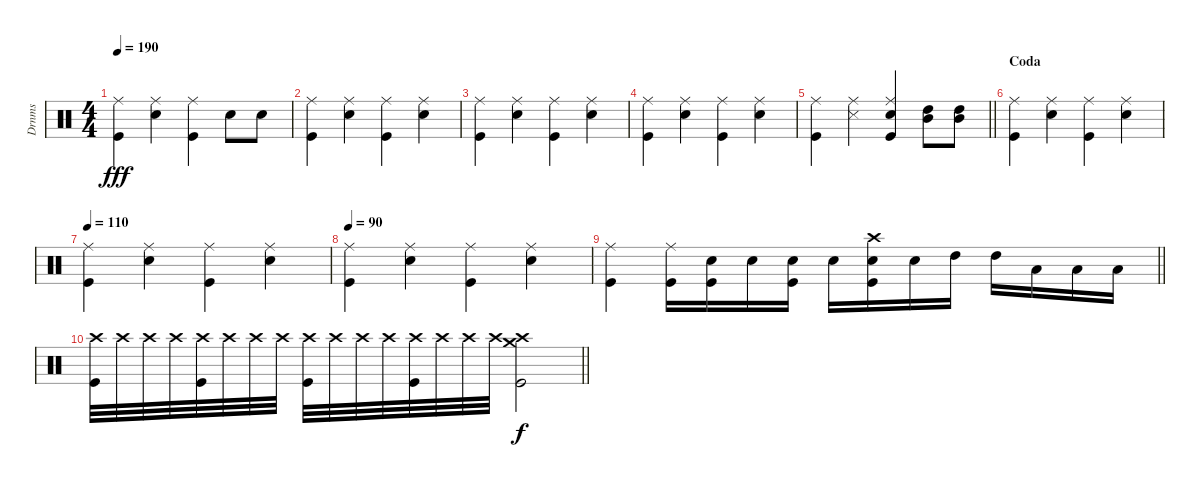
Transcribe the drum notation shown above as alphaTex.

\track ("Drnms" "Drnms") {instrument percussion}
\staff {score}
\articulation defaults
\ts (4 4)
\tempo 190
\clef neutral
\ks c
("Kick (hit)" "Ride (middle)").4{dy fff} ("Snare (hit) 2" "Ride (middle)").4 ("Kick (hit)" "Ride (middle)").4 "Snare (hit) 2".8 "Snare (hit) 2".8 |
("Kick (hit)" "Ride (middle)").4 ("Snare (hit) 2" "Ride (middle)").4 ("Kick (hit)" "Ride (middle)").4 ("Snare (hit) 2" "Ride (middle)").4 |
("Kick (hit)" "Ride (middle)").4 ("Snare (hit) 2" "Ride (middle)").4 ("Kick (hit)" "Ride (middle)").4 ("Snare (hit) 2" "Ride (middle)").4 |
("Kick (hit)" "Ride (middle)").4 ("Snare (hit) 2" "Ride (middle)").4 ("Kick (hit)" "Ride (middle)").4 ("Snare (hit) 2" "Ride (middle)").4 |
\barLineRight lightlight
("Kick (hit)" "Ride (middle)").4 ("Snare (side stick) 3" "Ride (middle)").4 ("Kick (hit)" "Snare (hit) 2" "Ride (middle)").4 ("Mid Tom (hit)" "High Tom (hit)").8 ("Mid Tom (hit)" "High Tom (hit)").8 |
\section ("" "Coda")
("Kick (hit)" "Ride (middle)").4 ("Snare (hit) 2" "Ride (middle)").4 ("Kick (hit)" "Ride (middle)").4 ("Snare (hit) 2" "Ride (middle)").4 |
\tempo 110
("Kick (hit)" "Ride (middle)").4 ("Snare (hit) 2" "Ride (middle)").4 ("Kick (hit)" "Ride (middle)").4 ("Snare (hit) 2" "Ride (middle)").4 |
\tempo 90
("Kick (hit)" "Ride (middle)").4 ("Snare (hit) 2" "Ride (middle)").4 ("Kick (hit)" "Ride (middle)").4 ("Snare (hit) 2" "Ride (middle)").4 |
\barLineRight lightlight
("Kick (hit)" "Ride (middle)").4 ("Kick (hit)" "Ride (middle)").16 ("Kick (hit)" "Snare (hit) 2").16 "Snare (hit) 2".16 ("Kick (hit)" "Snare (hit) 2").16 "Snare (hit) 2".16 ("Kick (hit)" "Snare (hit) 2" "Crash high (hit)").16 "Snare (hit) 2".16 "High Tom (hit)".16 "High Tom (hit)".16 "Low Tom (hit)".16 "Low Tom (hit)".16 "Low Tom (hit)".16 |
\barLineRight lightlight
("Kick (hit)" "Crash high (hit)").32 "Crash high (hit)".32 "Crash high (hit)".32 "Crash high (hit)".32 ("Kick (hit)" "Crash high (hit)").32 "Crash high (hit)".32 "Crash high (hit)".32 "Crash high (hit)".32 ("Kick (hit)" "Crash high (hit)").32 "Crash high (hit)".32 "Crash high (hit)".32 "Crash high (hit)".32 ("Kick (hit)" "Crash high (hit)").32 "Crash high (hit)".32 "Crash high (hit)".32 "Crash high (hit)".32 ("Kick (hit)" "Crash medium (hit)" "Crash high (hit)").2{dy f}
